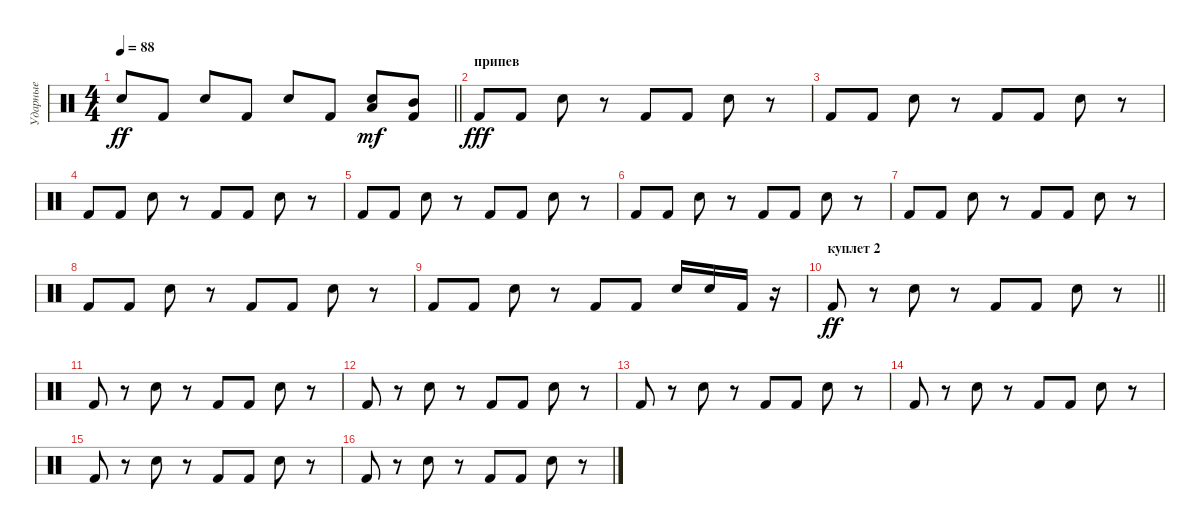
\track ("Ударные" "Ударные") {instrument percussion}
\staff {score}
\articulation defaults
\ts (4 4)
\tempo 88
\clef neutral
\barLineRight lightlight
\ks c "Electric Snare (hit)".8{dy ff} "Kick (hit) 2".8 "Electric Snare (hit)".8 "Kick (hit) 2".8 "Electric Snare (hit)".8 "Kick (hit) 2".8
("Electric Snare (hit)" "Low Tom (hit)").8{dy mf} ("Kick (hit) 2" "Mid Tom (hit)").8 |
\section ("" "припев")
"Kick (hit) 2".8{dy fff} "Kick (hit) 2".8 "Electric Snare (hit)".8 r.8 "Kick (hit) 2".8 "Kick (hit) 2".8 "Electric Snare (hit)".8 r.8 |
"Kick (hit) 2".8 "Kick (hit) 2".8 "Electric Snare (hit)".8 r.8 "Kick (hit) 2".8 "Kick (hit) 2".8 "Electric Snare (hit)".8 r.8 |
"Kick (hit) 2".8 "Kick (hit) 2".8 "Electric Snare (hit)".8 r.8 "Kick (hit) 2".8 "Kick (hit) 2".8 "Electric Snare (hit)".8 r.8 |
"Kick (hit) 2".8 "Kick (hit) 2".8 "Electric Snare (hit)".8 r.8 "Kick (hit) 2".8 "Kick (hit) 2".8 "Electric Snare (hit)".8 r.8 |
"Kick (hit) 2".8 "Kick (hit) 2".8 "Electric Snare (hit)".8 r.8 "Kick (hit) 2".8 "Kick (hit) 2".8 "Electric Snare (hit)".8 r.8 |
"Kick (hit) 2".8 "Kick (hit) 2".8 "Electric Snare (hit)".8 r.8 "Kick (hit) 2".8 "Kick (hit) 2".8 "Electric Snare (hit)".8 r.8 |
"Kick (hit) 2".8 "Kick (hit) 2".8 "Electric Snare (hit)".8 r.8 "Kick (hit) 2".8 "Kick (hit) 2".8 "Electric Snare (hit)".8 r.8 |
"Kick (hit) 2".8 "Kick (hit) 2".8 "Electric Snare (hit)".8 r.8 "Kick (hit) 2".8 "Kick (hit) 2".8 "Electric Snare (hit)".16 "Electric Snare (hit)".16 "Kick (hit) 2".16 r.16 |
\section ("" "куплет 2")
\barLineRight lightlight "Kick (hit) 2".8{dy ff}
r.8 "Electric Snare (hit)".8 r.8 "Kick (hit) 2".8 "Kick (hit) 2".8 "Electric Snare (hit)".8 r.8 |
"Kick (hit) 2".8 r.8 "Electric Snare (hit)".8 r.8 "Kick (hit) 2".8 "Kick (hit) 2".8 "Electric Snare (hit)".8 r.8 |
"Kick (hit) 2".8 r.8 "Electric Snare (hit)".8 r.8 "Kick (hit) 2".8 "Kick (hit) 2".8 "Electric Snare (hit)".8 r.8 |
"Kick (hit) 2".8 r.8 "Electric Snare (hit)".8 r.8 "Kick (hit) 2".8 "Kick (hit) 2".8 "Electric Snare (hit)".8 r.8 |
"Kick (hit) 2".8 r.8 "Electric Snare (hit)".8 r.8 "Kick (hit) 2".8 "Kick (hit) 2".8 "Electric Snare (hit)".8 r.8 |
"Kick (hit) 2".8 r.8 "Electric Snare (hit)".8 r.8 "Kick (hit) 2".8 "Kick (hit) 2".8 "Electric Snare (hit)".8 r.8 |
"Kick (hit) 2".8 r.8 "Electric Snare (hit)".8 r.8 "Kick (hit) 2".8 "Kick (hit) 2".8 "Electric Snare (hit)".8 r.8
